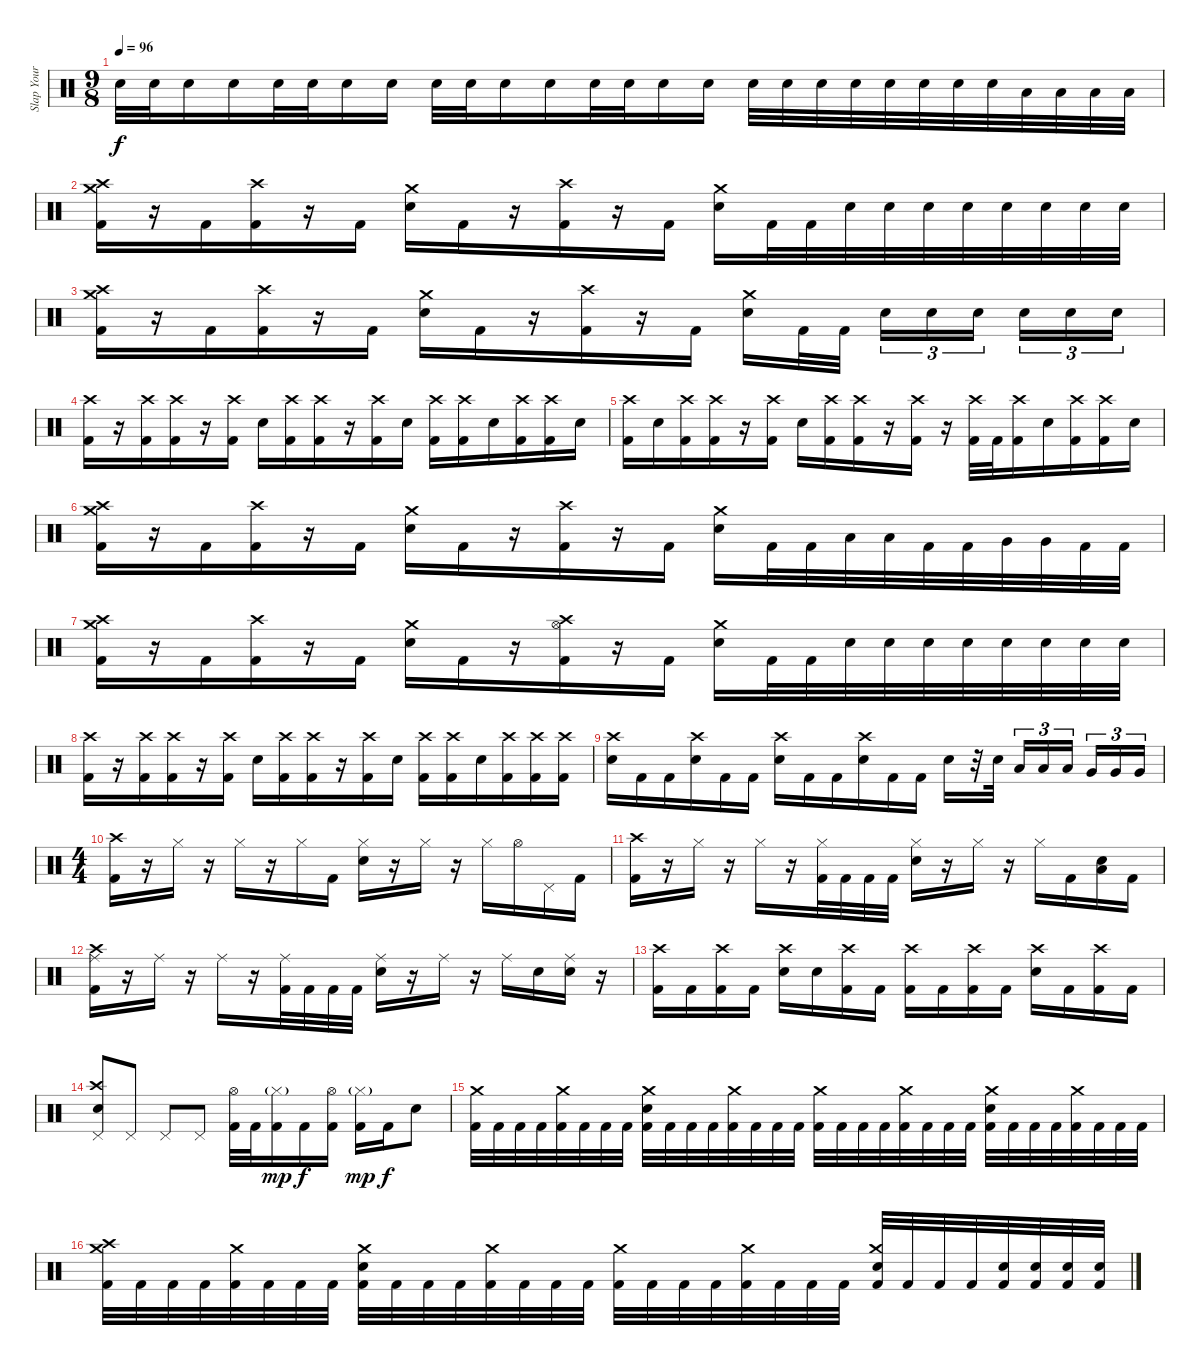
\track ("Slap Your Sticks" "Slap Your ") {instrument percussion}
\staff {score}
\articulation defaults
\ts (9 8)
\tempo 96
\clef neutral
\ks c "Snare (hit) 2".32{dy f} "Snare (hit) 2".32 "Snare (hit) 2".16 "Snare (hit) 2".16 "Snare (hit) 2".32 "Snare (hit) 2".32 "Snare (hit) 2".16 "Snare (hit) 2".16 "Snare (hit) 2".32 "Snare (hit) 2".32 "Snare (hit) 2".16 "Snare (hit) 2".16 "Snare (hit) 2".32 "Snare (hit) 2".32 "Snare (hit) 2".16 "Snare (hit) 2".16 "Snare (hit) 2".32 "Snare (hit) 2".32 "Snare (hit) 2".32 "Snare (hit) 2".32 "Snare (hit) 2".32{volume 13} "Snare (hit) 2".32 "Snare (hit) 2".32 "Snare (hit) 2".32 "Low Tom (hit)".32 "Low Tom (hit)".32 "Low Tom (hit)".32 "Low Tom (hit)".32
|
("Crash high (hit)" "Crash medium (hit)" "Kick (hit) 2").16 r.16 "Kick (hit) 2".16 ("Crash high (hit)" "Kick (hit) 2").16 r.16 "Kick (hit) 2".16 ("Crash medium (hit)" "Snare (hit) 2").16 "Kick (hit) 2".16 r.16 ("Crash high (hit)" "Kick (hit) 2").16 r.16 "Kick (hit) 2".16 ("Crash medium (hit)" "Snare (hit) 2").16 "Kick (hit) 2".32 "Kick (hit) 2".32 "Snare (hit) 2".32 "Snare (hit) 2".32 "Snare (hit) 2".32 "Snare (hit) 2".32 "Snare (hit) 2".32 "Snare (hit) 2".32 "Snare (hit) 2".32 "Snare (hit) 2".32 |
("Crash high (hit)" "Crash medium (hit)" "Kick (hit) 2").16 r.16 "Kick (hit) 2".16 ("Crash high (hit)" "Kick (hit) 2").16 r.16 "Kick (hit) 2".16 ("Crash medium (hit)" "Snare (hit) 2").16 "Kick (hit) 2".16 r.16 ("Crash high (hit)" "Kick (hit) 2").16 r.16 "Kick (hit) 2".16 ("Crash medium (hit)" "Snare (hit) 2").16 "Kick (hit) 2".32 "Kick (hit) 2".32 "Snare (hit) 2".16{tu (3 2)} "Snare (hit) 2".16{tu (3 2)} "Snare (hit) 2".16{tu (3 2)} "Snare (hit) 2".16{tu (3 2)} "Snare (hit) 2".16{tu (3 2)} "Snare (hit) 2".16{tu (3 2)} |
("Crash high (hit)" "Kick (hit) 2").16 r.16 ("Crash high (hit)" "Kick (hit) 2").16 ("Crash high (hit)" "Kick (hit) 2").16 r.16 ("Crash high (hit)" "Kick (hit) 2").16 "Snare (hit) 2".16 ("Crash high (hit)" "Kick (hit) 2").16 ("Crash high (hit)" "Kick (hit) 2").16 r.16 ("Crash high (hit)" "Kick (hit) 2").16 "Snare (hit) 2".16 ("Crash high (hit)" "Kick (hit) 2").16 ("Crash high (hit)" "Kick (hit) 2").16 "Snare (hit) 2".16 ("Crash high (hit)" "Kick (hit) 2").16 ("Crash high (hit)" "Kick (hit) 2").16 "Snare (hit) 2".16 |
("Crash high (hit)" "Kick (hit) 2").16 "Snare (hit) 2".16 ("Crash high (hit)" "Kick (hit) 2").16 ("Crash high (hit)" "Kick (hit) 2").16 r.16 ("Crash high (hit)" "Kick (hit) 2").16 "Snare (hit) 2".16 ("Crash high (hit)" "Kick (hit) 2").16 ("Crash high (hit)" "Kick (hit) 2").16 r.16 ("Crash high (hit)" "Kick (hit) 2").16 r.16 ("Crash high (hit)" "Kick (hit) 2").32 "Kick (hit) 2".32 ("Crash high (hit)" "Kick (hit) 2").16 "Snare (hit) 2".16 ("Crash high (hit)" "Kick (hit) 2").16 ("Crash high (hit)" "Kick (hit) 2").16 "Snare (hit) 2".16 |
("Crash high (hit)" "Crash medium (hit)" "Kick (hit) 2").16 r.16 "Kick (hit) 2".16 ("Crash high (hit)" "Kick (hit) 2").16 r.16 "Kick (hit) 2".16 ("Crash medium (hit)" "Snare (hit) 2").16 "Kick (hit) 2".16 r.16 ("Crash high (hit)" "Kick (hit) 2").16 r.16 "Kick (hit) 2".16 ("Crash medium (hit)" "Snare (hit) 2").16 "Kick (hit) 2".32 "Kick (hit) 2".32 "Low Tom (hit)".32 "Low Tom (hit)".32 "Kick (hit) 2".32 "Kick (hit) 2".32 "Very Low Tom (hit)".32 "Very Low Tom (hit)".32 "Kick (hit) 2".32 "Kick (hit) 2".32 |
("Crash high (hit)" "Crash medium (hit)" "Kick (hit) 2").16 r.16 "Kick (hit) 2".16 ("Crash high (hit)" "Kick (hit) 2").16 r.16 "Kick (hit) 2".16 ("Crash medium (hit)" "Snare (hit) 2").16 "Kick (hit) 2".16 r.16 ("Crash high (hit)" "Hi-Hat (open)" "Kick (hit) 2").16 r.16 "Kick (hit) 2".16 ("Crash medium (hit)" "Snare (hit) 2").16 "Kick (hit) 2".32 "Kick (hit) 2".32 "Snare (hit) 2".32 "Snare (hit) 2".32 "Snare (hit) 2".32 "Snare (hit) 2".32 "Snare (hit) 2".32 "Snare (hit) 2".32 "Snare (hit) 2".32 "Snare (hit) 2".32 |
("Crash high (hit)" "Kick (hit) 2").16 r.16 ("Crash high (hit)" "Kick (hit) 2").16 ("Crash high (hit)" "Kick (hit) 2").16 r.16 ("Crash high (hit)" "Kick (hit) 2").16 "Snare (hit) 2".16 ("Crash high (hit)" "Kick (hit) 2").16 ("Crash high (hit)" "Kick (hit) 2").16 r.16 ("Crash high (hit)" "Kick (hit) 2").16 "Snare (hit) 2".16 ("Crash high (hit)" "Kick (hit) 2").16 ("Crash high (hit)" "Kick (hit) 2").16 "Snare (hit) 2".16 ("Crash high (hit)" "Kick (hit) 2").16 ("Crash high (hit)" "Kick (hit) 2").16 ("Crash high (hit)" "Kick (hit) 2").16 |
("Crash high (hit)" "Snare (hit) 2").16 "Kick (hit) 2".16 "Kick (hit) 2".16 ("Crash high (hit)" "Snare (hit) 2").16 "Kick (hit) 2".16 "Kick (hit) 2".16 ("Crash high (hit)" "Snare (hit) 2").16 "Kick (hit) 2".16 "Kick (hit) 2".16 ("Crash high (hit)" "Snare (hit) 2").16 "Kick (hit) 2".16 "Kick (hit) 2".16 "Snare (hit) 2".16 r.32 "Snare (hit) 2".32 "Low Tom (hit)".16{tu (3 2)} "Low Tom (hit)".16{tu (3 2)} "Low Tom (hit)".16{tu (3 2)} "Very Low Tom (hit)".16{tu (3 2)} "Very Low Tom (hit)".16{tu (3 2)} "Very Low Tom (hit)".16{tu (3 2)} |
\ts (4 4)
("Crash high (hit)" "Kick (hit) 2").16 r.16 "Hi-Hat (closed)".16 r.16 "Hi-Hat (closed)".16 r.16 "Hi-Hat (closed)".16 "Kick (hit) 2".16 ("Hi-Hat (closed)" "Snare (hit) 2").16 r.16 "Hi-Hat (closed)".16 r.16 "Hi-Hat (closed)".16 "Hi-Hat (open)".16 "Pedal Hi-Hat (hit)".16 "Kick (hit) 2".16 |
("Crash high (hit)" "Kick (hit) 2").16 r.16 "Hi-Hat (closed)".16 r.16 "Hi-Hat (closed)".16 r.16 ("Hi-Hat (closed)" "Kick (hit) 2").32 "Kick (hit) 2".32 "Kick (hit) 2".32 "Kick (hit) 2".32 ("Hi-Hat (closed)" "Snare (hit) 2").16 r.16 "Hi-Hat (closed)".16 r.16 "Hi-Hat (closed)".16 "Kick (hit) 2".16 ("Low Tom (hit)" "Snare (hit) 2").16 "Kick (hit) 2".16 |
("Crash high (hit)" "Ride (middle)" "Kick (hit) 2").16 r.16 "Ride (middle)".16 r.16 "Ride (middle)".16 r.16 ("Ride (middle)" "Kick (hit) 2").32 "Kick (hit) 2".32 "Kick (hit) 2".32 "Kick (hit) 2".32 ("Ride (middle)" "Snare (hit) 2").16 r.16 "Ride (middle)".16 r.16 "Ride (middle)".16 "Snare (hit) 2".16 ("Ride (middle)" "Snare (hit) 2").16 r.16 |
("Crash high (hit)" "Kick (hit) 2").16 "Kick (hit) 2".16 ("Crash high (hit)" "Kick (hit) 2").16 "Kick (hit) 2".16 ("Crash high (hit)" "Snare (hit) 2").16 "Snare (hit) 2".16 ("Crash high (hit)" "Kick (hit) 2").16 "Kick (hit) 2".16 ("Crash high (hit)" "Kick (hit) 2").16 "Kick (hit) 2".16 ("Crash high (hit)" "Kick (hit) 2").16 "Kick (hit) 2".16 ("Crash high (hit)" "Snare (hit) 2").16 "Kick (hit) 2".16 ("Crash high (hit)" "Kick (hit) 2").16 "Kick (hit) 2".16 |
("Crash high (hit)" "Pedal Hi-Hat (hit)" "Snare (hit) 2").8 "Pedal Hi-Hat (hit)".8 "Pedal Hi-Hat (hit)".8 "Pedal Hi-Hat (hit)".8 ("Hi-Hat (open)" "Kick (hit) 2").32 "Kick (hit) 2".32 ("Hi-Hat (closed)"{g} "Kick (hit) 2").16{dy mp} "Kick (hit) 2".16{dy f} ("Hi-Hat (open)" "Kick (hit) 2").16 ("Hi-Hat (closed)"{g} "Kick (hit) 2").16{dy mp} "Kick (hit) 2".16{dy f} "Snare (hit) 2".8 |
("Crash medium (hit)" "Kick (hit) 2").32 "Kick (hit) 2".32 "Kick (hit) 2".32 "Kick (hit) 2".32 ("Crash medium (hit)" "Kick (hit) 2").32 "Kick (hit) 2".32 "Kick (hit) 2".32 "Kick (hit) 2".32 ("Crash medium (hit)" "Snare (hit) 2" "Kick (hit) 2").32 "Kick (hit) 2".32 "Kick (hit) 2".32 "Kick (hit) 2".32 ("Crash medium (hit)" "Kick (hit) 2").32 "Kick (hit) 2".32 "Kick (hit) 2".32 "Kick (hit) 2".32 ("Crash medium (hit)" "Kick (hit) 2").32 "Kick (hit) 2".32 "Kick (hit) 2".32 "Kick (hit) 2".32 ("Crash medium (hit)" "Kick (hit) 2").32 "Kick (hit) 2".32 "Kick (hit) 2".32 "Kick (hit) 2".32 ("Crash medium (hit)" "Snare (hit) 2" "Kick (hit) 2").32 "Kick (hit) 2".32 "Kick (hit) 2".32 "Kick (hit) 2".32 ("Crash medium (hit)" "Kick (hit) 2").32 "Kick (hit) 2".32 "Kick (hit) 2".32 "Kick (hit) 2".32 |
("Crash medium (hit)" "Crash high (hit)" "Kick (hit) 2").32 "Kick (hit) 2".32 "Kick (hit) 2".32 "Kick (hit) 2".32 ("Crash medium (hit)" "Kick (hit) 2").32 "Kick (hit) 2".32 "Kick (hit) 2".32 "Kick (hit) 2".32 ("Crash medium (hit)" "Snare (hit) 2" "Kick (hit) 2").32 "Kick (hit) 2".32 "Kick (hit) 2".32 "Kick (hit) 2".32 ("Crash medium (hit)" "Kick (hit) 2").32 "Kick (hit) 2".32 "Kick (hit) 2".32 "Kick (hit) 2".32 ("Crash medium (hit)" "Kick (hit) 2").32 "Kick (hit) 2".32 "Kick (hit) 2".32 "Kick (hit) 2".32 ("Crash medium (hit)" "Kick (hit) 2").32 "Kick (hit) 2".32 "Kick (hit) 2".32 "Kick (hit) 2".32 ("Crash medium (hit)" "Snare (hit) 2" "Kick (hit) 2").32 "Kick (hit) 2".32 "Kick (hit) 2".32 "Kick (hit) 2".32 ("Snare (hit) 2" "Kick (hit) 2").32 ("Snare (hit) 2" "Kick (hit) 2").32 ("Snare (hit) 2" "Kick (hit) 2").32 ("Snare (hit) 2" "Kick (hit) 2").32
